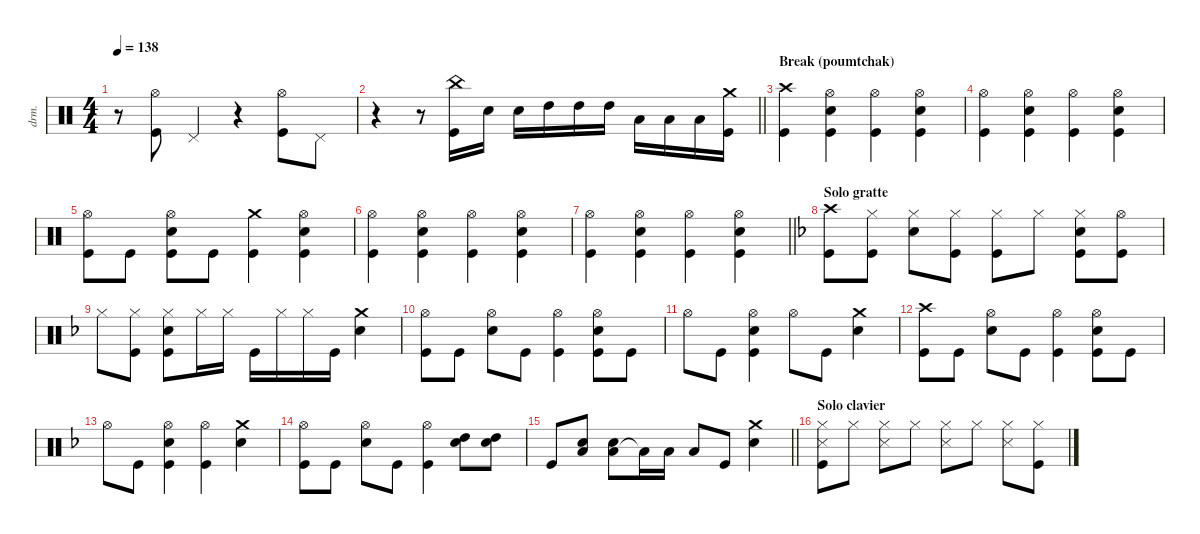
\defaultSystemsLayout 4
\hideDynamics
\bracketExtendMode nobrackets
\track ("Percussions" "drm.") {instrument percussion}
\staff {score}
\articulation defaults
\ts (4 4)
\tempo 138
\clef neutral
\ks aminor
r.8{dy f} ("Hi-Hat (open)" "Kick (hit)").8 "Pedal Hi-Hat (hit)".4 r.4 ("Kick (hit)" "Hi-Hat (open)").8 "Pedal Hi-Hat (hit)".8 |
\barLineRight lightlight
r.4 r.8 ("China (hit)" "Kick (hit)").16 "Snare (hit) 2".16 "Snare (hit) 2".16 "High Tom (hit)".16 "High Tom (hit)".16 "High Tom (hit)".16 "Low Tom (hit)".16 "Low Tom (hit)".16 "Low Tom (hit)".16 ("Kick (hit)" "Crash medium (hit)").16 |
\section ("" "Break (poumtchak)")
("Crash high (hit)" "Kick (hit)").4 ("Hi-Hat (open)" "Kick (hit)" "Snare (hit) 2").4 ("Hi-Hat (open)" "Kick (hit)").4 ("Hi-Hat (open)" "Kick (hit)" "Snare (hit) 2").4 |
("Hi-Hat (open)" "Kick (hit)").4 ("Hi-Hat (open)" "Kick (hit)" "Snare (hit) 2").4 ("Hi-Hat (open)" "Kick (hit)").4 ("Hi-Hat (open)" "Kick (hit)" "Snare (hit) 2").4 |
("Hi-Hat (open)" "Kick (hit)").8 "Kick (hit)".8 ("Hi-Hat (open)" "Kick (hit)" "Snare (hit) 2").8 "Kick (hit)".8 ("Crash medium (hit)" "Kick (hit)").4 ("Hi-Hat (open)" "Kick (hit)" "Snare (hit) 2").4 |
("Hi-Hat (open)" "Kick (hit)").4 ("Hi-Hat (open)" "Kick (hit)" "Snare (hit) 2").4 ("Hi-Hat (open)" "Kick (hit)").4 ("Hi-Hat (open)" "Kick (hit)" "Snare (hit) 2").4 |
\barLineRight lightlight
("Hi-Hat (open)" "Kick (hit)").4 ("Hi-Hat (open)" "Kick (hit)" "Snare (hit) 2").4 ("Hi-Hat (open)" "Kick (hit)").4 ("Hi-Hat (open)" "Kick (hit)" "Snare (hit) 2").4 |
\section ("" "Solo gratte")
\ks dminor
("Crash high (hit)"{acc forcenatural} "Kick (hit)"{acc forcenatural}).8 ("Hi-Hat (closed)"{acc forcenatural} "Kick (hit)"{acc forcenatural}).8 ("Hi-Hat (closed)"{acc forcenatural} "Snare (hit) 2"{acc forcenatural}).8 ("Hi-Hat (closed)"{acc forcenatural} "Kick (hit)"{acc forcenatural}).8 ("Hi-Hat (closed)"{acc forcenatural} "Kick (hit)"{acc forcenatural}).8 "Hi-Hat (closed)"{acc forcenatural}.8 ("Hi-Hat (closed)"{acc forcenatural} "Kick (hit)"{acc forcenatural} "Snare (hit) 2"{acc forcenatural}).8 ("Hi-Hat (open)"{acc forcenatural} "Kick (hit)"{acc forcenatural}).8 |
"Hi-Hat (closed)"{acc forcenatural}.8 ("Hi-Hat (closed)"{acc forcenatural} "Kick (hit)"{acc forcenatural}).8 ("Hi-Hat (closed)"{acc forcenatural} "Snare (hit) 2"{acc forcenatural} "Kick (hit)"{acc forcenatural}).8 "Hi-Hat (closed)"{acc forcenatural}.16 "Hi-Hat (closed)"{acc forcenatural}.16 "Kick (hit)"{acc forcenatural}.16 "Hi-Hat (closed)"{acc forcenatural}.16 "Hi-Hat (closed)"{acc forcenatural}.16 "Kick (hit)"{acc forcenatural}.16 ("Snare (hit) 2"{acc forcenatural} "Crash medium (hit)"{acc forcenatural}).4 |
("Hi-Hat (open)"{acc forcenatural} "Kick (hit)"{acc forcenatural}).8 "Kick (hit)"{acc forcenatural}.8 ("Hi-Hat (open)"{acc forcenatural} "Snare (hit) 2"{acc forcenatural}).8 "Kick (hit)"{acc forcenatural}.8 ("Hi-Hat (open)"{acc forcenatural} "Kick (hit)"{acc forcenatural}).4 ("Hi-Hat (open)"{acc forcenatural} "Snare (hit) 2"{acc forcenatural} "Kick (hit)"{acc forcenatural}).8 "Kick (hit)"{acc forcenatural}.8 |
"Hi-Hat (open)"{acc forcenatural}.8 "Kick (hit)"{acc forcenatural}.8 ("Hi-Hat (open)"{acc forcenatural} "Snare (hit) 2"{acc forcenatural} "Kick (hit)"{acc forcenatural}).4 "Hi-Hat (open)"{acc forcenatural}.8 "Kick (hit)"{acc forcenatural}.8 ("Crash medium (hit)"{acc forcenatural} "Snare (hit) 2"{acc forcenatural}).4 |
("Crash high (hit)"{acc forcenatural} "Kick (hit)"{acc forcenatural}).8 "Kick (hit)"{acc forcenatural}.8 ("Hi-Hat (open)"{acc forcenatural} "Snare (hit) 2"{acc forcenatural}).8 "Kick (hit)"{acc forcenatural}.8 ("Hi-Hat (open)"{acc forcenatural} "Kick (hit)"{acc forcenatural}).4 ("Hi-Hat (open)"{acc forcenatural} "Snare (hit) 2"{acc forcenatural} "Kick (hit)"{acc forcenatural}).8 "Kick (hit)"{acc forcenatural}.8 |
"Hi-Hat (open)"{acc forcenatural}.8 "Kick (hit)"{acc forcenatural}.8 ("Hi-Hat (open)"{acc forcenatural} "Snare (hit) 2"{acc forcenatural} "Kick (hit)"{acc forcenatural}).4 ("Hi-Hat (open)"{acc forcenatural} "Kick (hit)"{acc forcenatural}).4 ("Crash medium (hit)"{acc forcenatural} "Snare (hit) 2"{acc forcenatural}).4 |
("Hi-Hat (open)"{acc forcenatural} "Kick (hit)"{acc forcenatural}).8 "Kick (hit)"{acc forcenatural}.8 ("Hi-Hat (open)"{acc forcenatural} "Snare (hit) 2"{acc forcenatural}).8 "Kick (hit)"{acc forcenatural}.8 ("Hi-Hat (open)"{acc forcenatural} "Kick (hit)"{acc forcenatural}).4 ("Snare (hit) 2"{acc forcenatural} "High Tom (hit)"{acc forcenatural}).8 ("Snare (hit) 2"{acc forcenatural} "High Tom (hit)"{acc forcenatural}).8 |
\barLineRight lightlight "Kick (hit)"{acc forcenatural}.8
("Low Tom (hit)"{acc forcenatural} "Snare (hit) 2"{acc forcenatural}).8 ("Low Tom (hit)"{acc forcenatural} "Snare (hit) 2"{acc forcenatural}).8 "Low Tom (hit)"{t acc forcenatural}.16 "Low Tom (hit)"{acc forcenatural}.16 "Low Tom (hit)"{acc forcenatural}.8 "Kick (hit)"{acc forcenatural}.8 ("Crash medium (hit)"{acc forcenatural} "Snare (hit) 2"{acc forcenatural}).4 |
\section ("" "Solo clavier")
("Snare (side stick) 3"{acc forcenatural} "Hi-Hat (closed)"{acc forcenatural} "Kick (hit)"{acc forcenatural}).8 "Hi-Hat (closed)"{acc forcenatural}.8 ("Snare (side stick) 3"{acc forcenatural} "Hi-Hat (closed)"{acc forcenatural}).8 "Hi-Hat (closed)"{acc forcenatural}.8 ("Snare (side stick) 3"{acc forcenatural} "Hi-Hat (closed)"{acc forcenatural}).8 "Hi-Hat (closed)"{acc forcenatural}.8 ("Snare (side stick) 3"{acc forcenatural} "Hi-Hat (closed)"{acc forcenatural}).8 ("Hi-Hat (closed)"{acc forcenatural} "Kick (hit)"{acc forcenatural}).8
